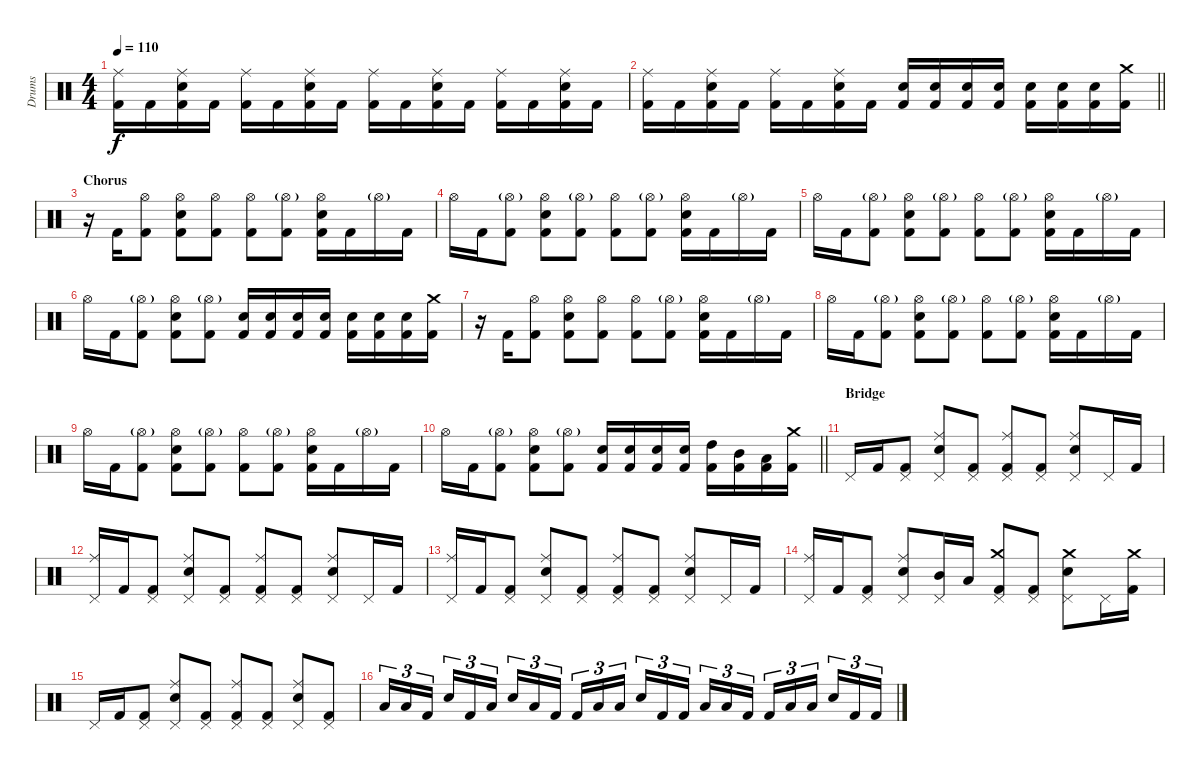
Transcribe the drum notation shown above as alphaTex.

\track ("Drums" "Drums") {instrument percussion}
\staff {score}
\articulation defaults
\ts (4 4)
\tempo 110
\clef neutral
\ks c
("Ride (middle)" "Kick (hit) 2").16{dy f} "Kick (hit) 2".16 ("Ride (middle)" "Snare (hit) 2" "Kick (hit) 2").16 "Kick (hit) 2".16 ("Ride (middle)" "Kick (hit) 2").16 "Kick (hit) 2".16 ("Ride (middle)" "Snare (hit) 2" "Kick (hit) 2").16 "Kick (hit) 2".16 ("Ride (middle)" "Kick (hit) 2").16 "Kick (hit) 2".16 ("Ride (middle)" "Snare (hit) 2" "Kick (hit) 2").16 "Kick (hit) 2".16 ("Ride (middle)" "Kick (hit) 2").16 "Kick (hit) 2".16 ("Ride (middle)" "Snare (hit) 2" "Kick (hit) 2").16 "Kick (hit) 2".16 |
\barLineRight lightlight
("Ride (middle)" "Kick (hit) 2").16 "Kick (hit) 2".16 ("Ride (middle)" "Snare (hit) 2" "Kick (hit) 2").16 "Kick (hit) 2".16 ("Ride (middle)" "Kick (hit) 2").16 "Kick (hit) 2".16 ("Ride (middle)" "Snare (hit) 2" "Kick (hit) 2").16 "Kick (hit) 2".16 ("Snare (hit) 2" "Kick (hit) 2").16 ("Snare (hit) 2" "Kick (hit) 2").16 ("Snare (hit) 2" "Kick (hit) 2").16 ("Snare (hit) 2" "Kick (hit) 2").16 ("Snare (hit) 2" "Kick (hit) 2").16 ("Snare (hit) 2" "Kick (hit) 2").16 ("Snare (hit) 2" "Kick (hit) 2").16 ("Crash medium (hit)" "Kick (hit) 2").16 |
\section ("" "Chorus")
r.16 "Kick (hit) 2".16 ("Hi-Hat (open)" "Kick (hit) 2").8 ("Hi-Hat (open)" "Snare (hit) 2" "Kick (hit) 2").8 ("Hi-Hat (open)" "Kick (hit) 2").8 ("Hi-Hat (open)" "Kick (hit) 2").8 ("Hi-Hat (open)"{g} "Kick (hit) 2").8 ("Hi-Hat (open)" "Snare (hit) 2" "Kick (hit) 2").16 "Kick (hit) 2".16 "Hi-Hat (open)"{g}.16 "Kick (hit) 2".16 |
"Hi-Hat (open)".16 "Kick (hit) 2".16 ("Hi-Hat (open)"{g} "Kick (hit) 2").8 ("Hi-Hat (open)" "Snare (hit) 2" "Kick (hit) 2").8 ("Hi-Hat (open)"{g} "Kick (hit) 2").8 ("Hi-Hat (open)" "Kick (hit) 2").8 ("Hi-Hat (open)"{g} "Kick (hit) 2").8 ("Hi-Hat (open)" "Snare (hit) 2" "Kick (hit) 2").16 "Kick (hit) 2".16 "Hi-Hat (open)"{g}.16 "Kick (hit) 2".16 |
"Hi-Hat (open)".16 "Kick (hit) 2".16 ("Hi-Hat (open)"{g} "Kick (hit) 2").8 ("Hi-Hat (open)" "Snare (hit) 2" "Kick (hit) 2").8 ("Hi-Hat (open)"{g} "Kick (hit) 2").8 ("Hi-Hat (open)" "Kick (hit) 2").8 ("Hi-Hat (open)"{g} "Kick (hit) 2").8 ("Hi-Hat (open)" "Snare (hit) 2" "Kick (hit) 2").16 "Kick (hit) 2".16 "Hi-Hat (open)"{g}.16 "Kick (hit) 2".16 |
"Hi-Hat (open)".16 "Kick (hit) 2".16 ("Hi-Hat (open)"{g} "Kick (hit) 2").8 ("Hi-Hat (open)" "Snare (hit) 2" "Kick (hit) 2").8 ("Hi-Hat (open)"{g} "Kick (hit) 2").8 ("Snare (hit) 2" "Kick (hit) 2").16 ("Snare (hit) 2" "Kick (hit) 2").16 ("Snare (hit) 2" "Kick (hit) 2").16 ("Snare (hit) 2" "Kick (hit) 2").16 ("Snare (hit) 2" "Kick (hit) 2").16 ("Snare (hit) 2" "Kick (hit) 2").16 ("Snare (hit) 2" "Kick (hit) 2").16 ("Crash medium (hit)" "Kick (hit) 2").16 |
r.16 "Kick (hit) 2".16 ("Hi-Hat (open)" "Kick (hit) 2").8 ("Hi-Hat (open)" "Snare (hit) 2" "Kick (hit) 2").8 ("Hi-Hat (open)" "Kick (hit) 2").8 ("Hi-Hat (open)" "Kick (hit) 2").8 ("Hi-Hat (open)"{g} "Kick (hit) 2").8 ("Hi-Hat (open)" "Snare (hit) 2" "Kick (hit) 2").16 "Kick (hit) 2".16 "Hi-Hat (open)"{g}.16 "Kick (hit) 2".16 |
"Hi-Hat (open)".16 "Kick (hit) 2".16 ("Hi-Hat (open)"{g} "Kick (hit) 2").8 ("Hi-Hat (open)" "Snare (hit) 2" "Kick (hit) 2").8 ("Hi-Hat (open)"{g} "Kick (hit) 2").8 ("Hi-Hat (open)" "Kick (hit) 2").8 ("Hi-Hat (open)"{g} "Kick (hit) 2").8 ("Hi-Hat (open)" "Snare (hit) 2" "Kick (hit) 2").16 "Kick (hit) 2".16 "Hi-Hat (open)"{g}.16 "Kick (hit) 2".16 |
"Hi-Hat (open)".16 "Kick (hit) 2".16 ("Hi-Hat (open)"{g} "Kick (hit) 2").8 ("Hi-Hat (open)" "Snare (hit) 2" "Kick (hit) 2").8 ("Hi-Hat (open)"{g} "Kick (hit) 2").8 ("Hi-Hat (open)" "Kick (hit) 2").8 ("Hi-Hat (open)"{g} "Kick (hit) 2").8 ("Hi-Hat (open)" "Snare (hit) 2" "Kick (hit) 2").16 "Kick (hit) 2".16 "Hi-Hat (open)"{g}.16 "Kick (hit) 2".16 |
\barLineRight lightlight "Hi-Hat (open)".16 "Kick (hit) 2".16
("Hi-Hat (open)"{g} "Kick (hit) 2").8 ("Hi-Hat (open)" "Snare (hit) 2" "Kick (hit) 2").8 ("Hi-Hat (open)"{g} "Kick (hit) 2").8 ("Snare (hit) 2" "Kick (hit) 2").16 ("Snare (hit) 2" "Kick (hit) 2").16 ("Snare (hit) 2" "Kick (hit) 2").16 ("Snare (hit) 2" "Kick (hit) 2").16 ("High Tom (hit)" "Kick (hit) 2").16 ("Mid Tom (hit)" "Kick (hit) 2").16 ("Low Tom (hit)" "Kick (hit) 2").16 ("Crash medium (hit)" "Kick (hit) 2").16 |
\section ("" "Bridge")
"Pedal Hi-Hat (hit)".16 "Kick (hit) 2".16 ("Pedal Hi-Hat (hit)" "Kick (hit) 2").8 ("Ride (middle)" "Snare (hit) 2" "Pedal Hi-Hat (hit)").8 ("Pedal Hi-Hat (hit)" "Kick (hit) 2").8 ("Ride (middle)" "Pedal Hi-Hat (hit)" "Kick (hit) 2").8 ("Pedal Hi-Hat (hit)" "Kick (hit) 2").8 ("Ride (middle)" "Snare (hit) 2" "Pedal Hi-Hat (hit)").8 "Pedal Hi-Hat (hit)".16 "Kick (hit) 2".16 |
("Ride (middle)" "Pedal Hi-Hat (hit)").16 "Kick (hit) 2".16 ("Pedal Hi-Hat (hit)" "Kick (hit) 2").8 ("Ride (middle)" "Snare (hit) 2" "Pedal Hi-Hat (hit)").8 ("Pedal Hi-Hat (hit)" "Kick (hit) 2").8 ("Ride (middle)" "Pedal Hi-Hat (hit)" "Kick (hit) 2").8 ("Pedal Hi-Hat (hit)" "Kick (hit) 2").8 ("Ride (middle)" "Snare (hit) 2" "Pedal Hi-Hat (hit)").8 "Pedal Hi-Hat (hit)".16 "Kick (hit) 2".16 |
("Ride (middle)" "Pedal Hi-Hat (hit)").16 "Kick (hit) 2".16 ("Pedal Hi-Hat (hit)" "Kick (hit) 2").8 ("Ride (middle)" "Snare (hit) 2" "Pedal Hi-Hat (hit)").8 ("Pedal Hi-Hat (hit)" "Kick (hit) 2").8 ("Ride (middle)" "Pedal Hi-Hat (hit)" "Kick (hit) 2").8 ("Pedal Hi-Hat (hit)" "Kick (hit) 2").8 ("Ride (middle)" "Snare (hit) 2" "Pedal Hi-Hat (hit)").8 "Pedal Hi-Hat (hit)".16 "Kick (hit) 2".16 |
("Ride (middle)" "Pedal Hi-Hat (hit)").16 "Kick (hit) 2".16 ("Pedal Hi-Hat (hit)" "Kick (hit) 2").8 ("Ride (middle)" "Snare (hit) 2" "Pedal Hi-Hat (hit)").8 ("Mid Tom (hit)" "Pedal Hi-Hat (hit)").16 "Low Tom (hit)".16 ("Crash medium (hit)" "Pedal Hi-Hat (hit)" "Kick (hit) 2").8 ("Pedal Hi-Hat (hit)" "Kick (hit) 2").8 ("Crash medium (hit)" "Snare (hit) 2" "Pedal Hi-Hat (hit)").8 "Pedal Hi-Hat (hit)".16 ("Crash medium (hit)" "Kick (hit) 2").16 |
"Pedal Hi-Hat (hit)".16 "Kick (hit) 2".16 ("Pedal Hi-Hat (hit)" "Kick (hit) 2").8 ("Ride (middle)" "Snare (hit) 2" "Pedal Hi-Hat (hit)").8 ("Pedal Hi-Hat (hit)" "Kick (hit) 2").8 ("Ride (middle)" "Pedal Hi-Hat (hit)" "Kick (hit) 2").8 ("Pedal Hi-Hat (hit)" "Kick (hit) 2").8 ("Ride (middle)" "Snare (hit) 2" "Pedal Hi-Hat (hit)").8 ("Pedal Hi-Hat (hit)" "Kick (hit) 2").8 |
"Low Tom (hit)".16{tu (3 2)} "Low Tom (hit)".16{tu (3 2)} "Kick (hit) 2".16{tu (3 2) beam splitsecondary} "Snare (hit) 2".16{tu (3 2)} "Kick (hit) 2".16{tu (3 2)} "Low Tom (hit)".16{tu (3 2)} "Snare (hit) 2".16{tu (3 2)} "Low Tom (hit)".16{tu (3 2)} "Kick (hit) 2".16{tu (3 2) beam splitsecondary} "Kick (hit) 2".16{tu (3 2)} "Low Tom (hit)".16{tu (3 2)} "Low Tom (hit)".16{tu (3 2)} "Snare (hit) 2".16{tu (3 2)} "Kick (hit) 2".16{tu (3 2)} "Kick (hit) 2".16{tu (3 2) beam splitsecondary} "Low Tom (hit)".16{tu (3 2)} "Low Tom (hit)".16{tu (3 2)} "Kick (hit) 2".16{tu (3 2)} "Kick (hit) 2".16{tu (3 2)} "Low Tom (hit)".16{tu (3 2)} "Low Tom (hit)".16{tu (3 2) beam splitsecondary} "Snare (hit) 2".16{tu (3 2)} "Kick (hit) 2".16{tu (3 2)} "Kick (hit) 2".16{tu (3 2)}
